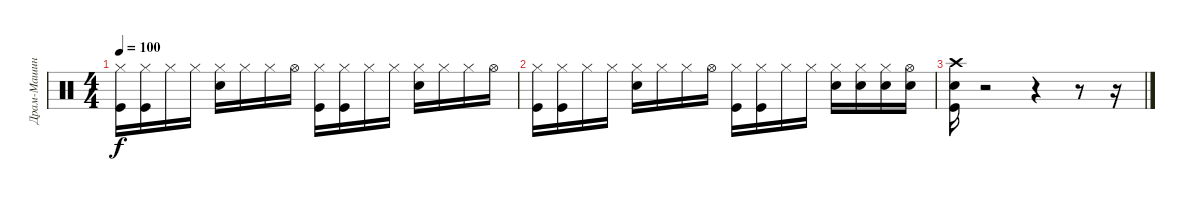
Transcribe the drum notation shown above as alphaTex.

\track ("Драм-Машина" "Драм-Машин") {instrument percussion}
\staff {score}
\articulation defaults
\ts (4 4)
\tempo 100
\clef neutral
\ks c
("Kick (hit)" "Hi-Hat (closed)").16{dy f} ("Kick (hit)" "Hi-Hat (closed)").16 "Hi-Hat (closed)".16 "Hi-Hat (closed)".16 ("Hi-Hat (closed)" "Electric Snare (hit)").16 "Hi-Hat (closed)".16 "Hi-Hat (closed)".16 "Hi-Hat (open)".16 ("Kick (hit)" "Hi-Hat (closed)").16 ("Kick (hit)" "Hi-Hat (closed)").16 "Hi-Hat (closed)".16 "Hi-Hat (closed)".16 ("Hi-Hat (closed)" "Electric Snare (hit)").16 "Hi-Hat (closed)".16 "Hi-Hat (closed)".16 "Hi-Hat (open)".16 |
("Kick (hit)" "Hi-Hat (closed)").16 ("Kick (hit)" "Hi-Hat (closed)").16 "Hi-Hat (closed)".16 "Hi-Hat (closed)".16 ("Hi-Hat (closed)" "Electric Snare (hit)").16 "Hi-Hat (closed)".16 "Hi-Hat (closed)".16 "Hi-Hat (open)".16 ("Kick (hit)" "Hi-Hat (closed)").16 ("Kick (hit)" "Hi-Hat (closed)").16 "Hi-Hat (closed)".16 "Hi-Hat (closed)".16 ("Hi-Hat (closed)" "Electric Snare (hit)").16 ("Electric Snare (hit)" "Hi-Hat (closed)").16 ("Electric Snare (hit)" "Hi-Hat (closed)").16 ("Electric Snare (hit)" "Hi-Hat (open)").16 |
("Crash high (hit)" "Electric Snare (hit)" "Kick (hit)").16 r.2 r.4 r.8 r.16
